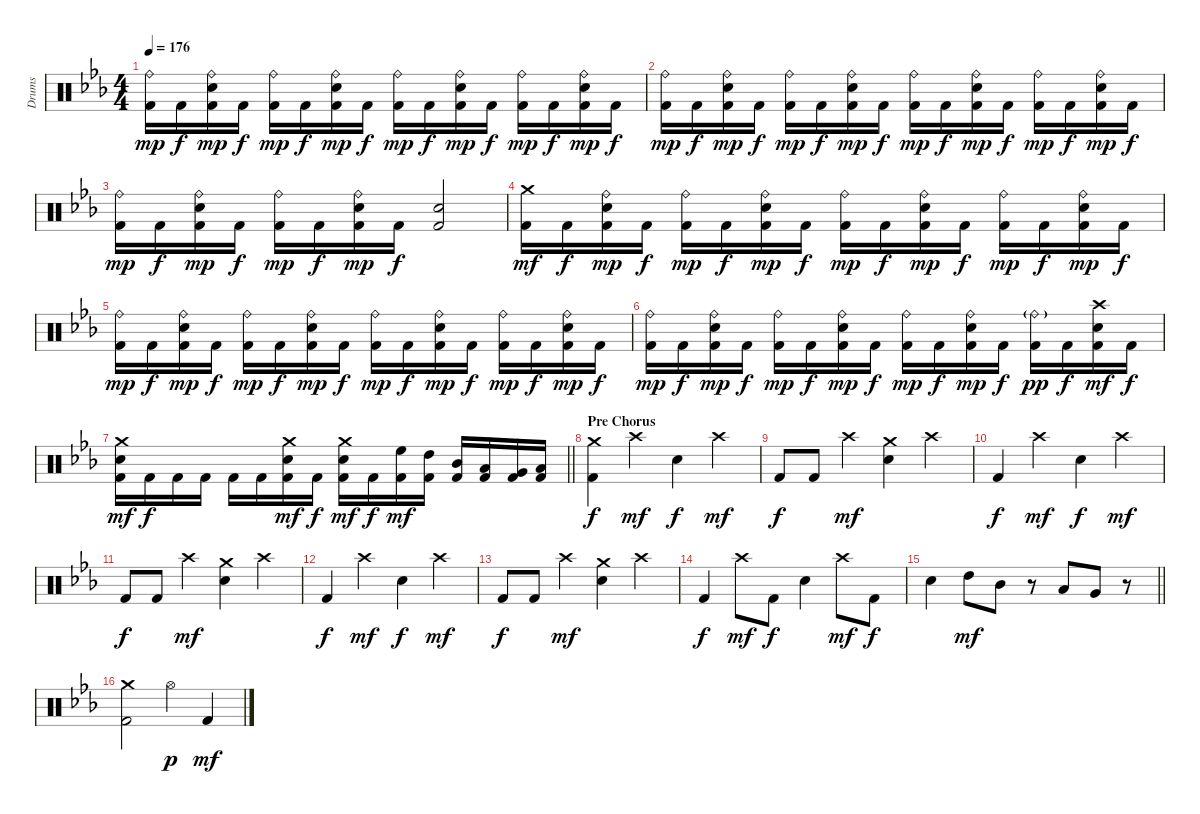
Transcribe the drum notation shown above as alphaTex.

\track ("Drums" "Drums") {instrument percussion}
\staff {score}
\articulation defaults
\ts (4 4)
\tempo 176
\clef neutral
\ks cminor
("Ride (bell)" "Kick (hit) 2").16{dy mp} "Kick (hit) 2".16{dy f} ("Ride (bell)" "Electric Snare (hit)" "Kick (hit) 2").16{dy mp} "Kick (hit) 2".16{dy f} ("Ride (bell)" "Kick (hit) 2").16{dy mp} "Kick (hit) 2".16{dy f} ("Ride (bell)" "Electric Snare (hit)" "Kick (hit) 2").16{dy mp} "Kick (hit) 2".16{dy f} ("Ride (bell)" "Kick (hit) 2").16{dy mp} "Kick (hit) 2".16{dy f} ("Ride (bell)" "Electric Snare (hit)" "Kick (hit) 2").16{dy mp} "Kick (hit) 2".16{dy f} ("Ride (bell)" "Kick (hit) 2").16{dy mp} "Kick (hit) 2".16{dy f} ("Ride (bell)" "Electric Snare (hit)" "Kick (hit) 2").16{dy mp} "Kick (hit) 2".16{dy f} |
("Ride (bell)" "Kick (hit) 2").16{dy mp} "Kick (hit) 2".16{dy f} ("Ride (bell)" "Electric Snare (hit)" "Kick (hit) 2").16{dy mp} "Kick (hit) 2".16{dy f} ("Ride (bell)" "Kick (hit) 2").16{dy mp} "Kick (hit) 2".16{dy f} ("Ride (bell)" "Electric Snare (hit)" "Kick (hit) 2").16{dy mp} "Kick (hit) 2".16{dy f} ("Ride (bell)" "Kick (hit) 2").16{dy mp} "Kick (hit) 2".16{dy f} ("Ride (bell)" "Electric Snare (hit)" "Kick (hit) 2").16{dy mp} "Kick (hit) 2".16{dy f} ("Ride (bell)" "Kick (hit) 2").16{dy mp} "Kick (hit) 2".16{dy f} ("Ride (bell)" "Electric Snare (hit)" "Kick (hit) 2").16{dy mp} "Kick (hit) 2".16{dy f} |
("Ride (bell)" "Kick (hit) 2").16{dy mp} "Kick (hit) 2".16{dy f} ("Ride (bell)" "Electric Snare (hit)" "Kick (hit) 2").16{dy mp} "Kick (hit) 2".16{dy f} ("Ride (bell)" "Kick (hit) 2").16{dy mp} "Kick (hit) 2".16{dy f} ("Ride (bell)" "Electric Snare (hit)" "Kick (hit) 2").16{dy mp} "Kick (hit) 2".16{dy f} ("Electric Snare (hit)" "Kick (hit) 2").2 |
("Crash medium (hit)" "Kick (hit) 2").16{dy mf} "Kick (hit) 2".16{dy f} ("Ride (bell)" "Electric Snare (hit)" "Kick (hit) 2").16{dy mp} "Kick (hit) 2".16{dy f} ("Ride (bell)" "Kick (hit) 2").16{dy mp} "Kick (hit) 2".16{dy f} ("Ride (bell)" "Electric Snare (hit)" "Kick (hit) 2").16{dy mp} "Kick (hit) 2".16{dy f} ("Ride (bell)" "Kick (hit) 2").16{dy mp} "Kick (hit) 2".16{dy f} ("Ride (bell)" "Electric Snare (hit)" "Kick (hit) 2").16{dy mp} "Kick (hit) 2".16{dy f} ("Ride (bell)" "Kick (hit) 2").16{dy mp} "Kick (hit) 2".16{dy f} ("Ride (bell)" "Electric Snare (hit)" "Kick (hit) 2").16{dy mp} "Kick (hit) 2".16{dy f} |
("Ride (bell)" "Kick (hit) 2").16{dy mp} "Kick (hit) 2".16{dy f} ("Ride (bell)" "Electric Snare (hit)" "Kick (hit) 2").16{dy mp} "Kick (hit) 2".16{dy f} ("Ride (bell)" "Kick (hit) 2").16{dy mp} "Kick (hit) 2".16{dy f} ("Ride (bell)" "Electric Snare (hit)" "Kick (hit) 2").16{dy mp} "Kick (hit) 2".16{dy f} ("Ride (bell)" "Kick (hit) 2").16{dy mp} "Kick (hit) 2".16{dy f} ("Ride (bell)" "Electric Snare (hit)" "Kick (hit) 2").16{dy mp} "Kick (hit) 2".16{dy f} ("Ride (bell)" "Kick (hit) 2").16{dy mp} "Kick (hit) 2".16{dy f} ("Ride (bell)" "Electric Snare (hit)" "Kick (hit) 2").16{dy mp} "Kick (hit) 2".16{dy f} |
("Ride (bell)" "Kick (hit) 2").16{dy mp} "Kick (hit) 2".16{dy f} ("Ride (bell)" "Electric Snare (hit)" "Kick (hit) 2").16{dy mp} "Kick (hit) 2".16{dy f} ("Ride (bell)" "Kick (hit) 2").16{dy mp} "Kick (hit) 2".16{dy f} ("Ride (bell)" "Electric Snare (hit)" "Kick (hit) 2").16{dy mp} "Kick (hit) 2".16{dy f} ("Ride (bell)" "Kick (hit) 2").16{dy mp} "Kick (hit) 2".16{dy f} ("Ride (bell)" "Electric Snare (hit)" "Kick (hit) 2").16{dy mp} "Kick (hit) 2".16{dy f} ("Ride (bell)"{g} "Kick (hit) 2").16{dy pp} "Kick (hit) 2".16{dy f} ("Crash high (hit)" "Electric Snare (hit)" "Kick (hit) 2").16{dy mf} "Kick (hit) 2".16{dy f} |
\barLineRight lightlight
("Crash medium (hit)" "Electric Snare (hit)" "Kick (hit) 2").16{dy mf} "Kick (hit) 2".16{dy f} "Kick (hit) 2".16 "Kick (hit) 2".16 "Kick (hit) 2".16 "Kick (hit) 2".16 ("Crash medium (hit)" "Electric Snare (hit)" "Kick (hit) 2").16{dy mf} "Kick (hit) 2".16{dy f} ("Crash medium (hit)" "Electric Snare (hit)" "Kick (hit) 2").16{dy mf} "Kick (hit) 2".16{dy f} ("High Floor Tom (hit)" "Kick (hit) 2").16{dy mf} ("High Tom (hit)" "Kick (hit) 2").16 ("Mid Tom (hit)" "Kick (hit) 2").16 ("Low Tom (hit)" "Kick (hit) 2").16 ("Very Low Tom (hit)" "Kick (hit) 2").16 ("Low Floor Tom (hit)" "Kick (hit) 2").16 |
\section ("" "Pre Chorus")
("Crash medium (hit)" "Kick (hit) 2").4{dy f} "Crash high (hit)".4{dy mf} "Electric Snare (hit)".4{dy f} "Crash high (hit)".4{dy mf} |
"Kick (hit) 2".8{dy f} "Kick (hit) 2".8 "Crash high (hit)".4{dy mf} ("Crash medium (hit)" "Electric Snare (hit)").4 "Crash high (hit)".4 |
"Kick (hit) 2".4{dy f} "Crash high (hit)".4{dy mf} "Electric Snare (hit)".4{dy f} "Crash high (hit)".4{dy mf} |
"Kick (hit) 2".8{dy f} "Kick (hit) 2".8 "Crash high (hit)".4{dy mf} ("Crash medium (hit)" "Electric Snare (hit)").4 "Crash high (hit)".4 |
"Kick (hit) 2".4{dy f} "Crash high (hit)".4{dy mf} "Electric Snare (hit)".4{dy f} "Crash high (hit)".4{dy mf} |
"Kick (hit) 2".8{dy f} "Kick (hit) 2".8 "Crash high (hit)".4{dy mf} ("Crash medium (hit)" "Electric Snare (hit)").4 "Crash high (hit)".4 |
"Kick (hit) 2".4{dy f} "Crash high (hit)".8{dy mf} "Kick (hit) 2".8{dy f} "Electric Snare (hit)".4 "Crash high (hit)".8{dy mf} "Kick (hit) 2".8{dy f} |
\barLineRight lightlight "Electric Snare (hit)".4 "High Tom (hit)".8{dy mf} "Mid Tom (hit)".8
r.8 "Low Tom (hit)".8{beam merge} "Very Low Tom (hit)".8 r.8 |
\section ("" "")
("Crash medium (hit)" "Kick (hit) 2").2 "Hi-Hat (open)".4{dy p} "Kick (hit) 2".4{dy mf}
